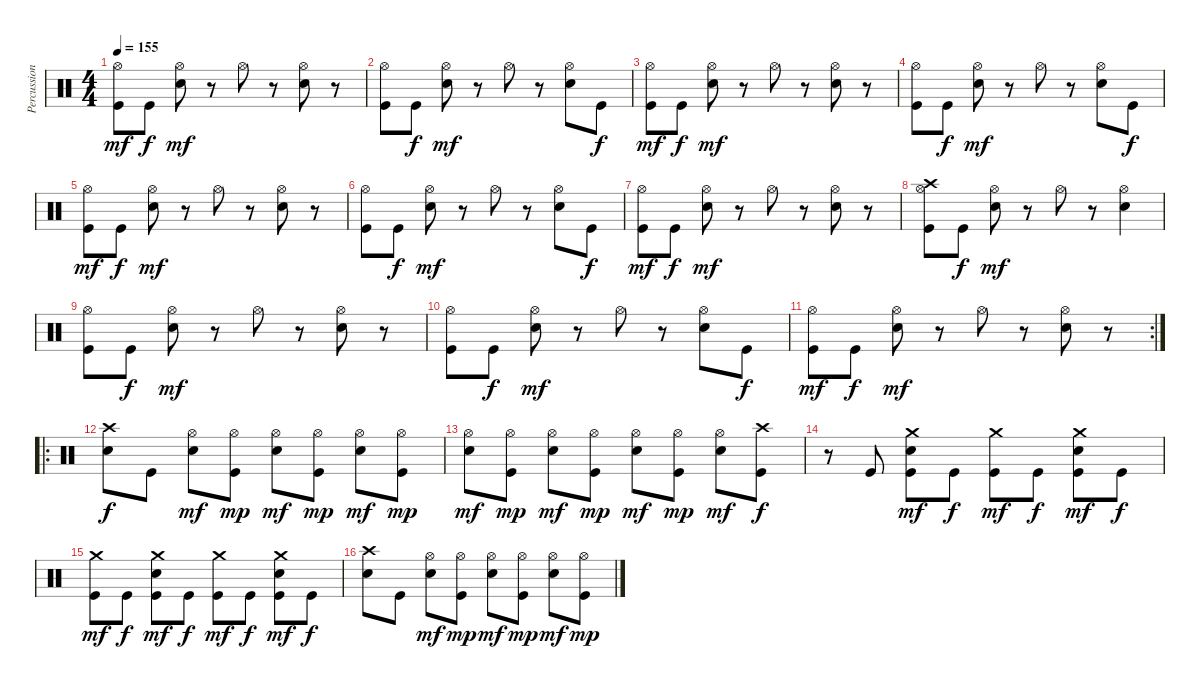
\track ("Percussions" "Percussion") {instrument percussion}
\staff {score}
\articulation defaults
\ts (4 4)
\tempo 155
\clef neutral
\ks c
("Kick (hit)" "Hi-Hat (open)").8{dy mf} "Kick (hit)".8{dy f} ("Electric Snare (hit)" "Hi-Hat (open)").8{dy mf} r.8 "Hi-Hat (open)".8 r.8 ("Electric Snare (hit)" "Hi-Hat (open)").8 r.8 |
("Kick (hit)" "Hi-Hat (open)").8 "Kick (hit)".8{dy f} ("Electric Snare (hit)" "Hi-Hat (open)").8{dy mf} r.8 "Hi-Hat (open)".8 r.8 ("Electric Snare (hit)" "Hi-Hat (open)").8 "Kick (hit)".8{dy f} |
("Kick (hit)" "Hi-Hat (open)").8{dy mf} "Kick (hit)".8{dy f} ("Electric Snare (hit)" "Hi-Hat (open)").8{dy mf} r.8 "Hi-Hat (open)".8 r.8 ("Electric Snare (hit)" "Hi-Hat (open)").8 r.8 |
("Kick (hit)" "Hi-Hat (open)").8 "Kick (hit)".8{dy f} ("Electric Snare (hit)" "Hi-Hat (open)").8{dy mf} r.8 "Hi-Hat (open)".8 r.8 ("Electric Snare (hit)" "Hi-Hat (open)").8 "Kick (hit)".8{dy f} |
("Kick (hit)" "Hi-Hat (open)").8{dy mf} "Kick (hit)".8{dy f} ("Electric Snare (hit)" "Hi-Hat (open)").8{dy mf} r.8 "Hi-Hat (open)".8 r.8 ("Electric Snare (hit)" "Hi-Hat (open)").8 r.8 |
("Kick (hit)" "Hi-Hat (open)").8 "Kick (hit)".8{dy f} ("Electric Snare (hit)" "Hi-Hat (open)").8{dy mf} r.8 "Hi-Hat (open)".8 r.8 ("Electric Snare (hit)" "Hi-Hat (open)").8 "Kick (hit)".8{dy f} |
("Kick (hit)" "Hi-Hat (open)").8{dy mf} "Kick (hit)".8{dy f} ("Electric Snare (hit)" "Hi-Hat (open)").8{dy mf} r.8 "Hi-Hat (open)".8 r.8 ("Electric Snare (hit)" "Hi-Hat (open)").8 r.8 |
("Kick (hit)" "Hi-Hat (open)" "Crash high (hit)").8 "Kick (hit)".8{dy f} ("Electric Snare (hit)" "Hi-Hat (open)").8{dy mf} r.8 "Hi-Hat (open)".8 r.8 ("Electric Snare (hit)" "Hi-Hat (open)").4 |
("Kick (hit)" "Hi-Hat (open)").8 "Kick (hit)".8{dy f} ("Electric Snare (hit)" "Hi-Hat (open)").8{dy mf} r.8 "Hi-Hat (open)".8 r.8 ("Electric Snare (hit)" "Hi-Hat (open)").8 r.8 |
("Kick (hit)" "Hi-Hat (open)").8 "Kick (hit)".8{dy f} ("Electric Snare (hit)" "Hi-Hat (open)").8{dy mf} r.8 "Hi-Hat (open)".8 r.8 ("Electric Snare (hit)" "Hi-Hat (open)").8 "Kick (hit)".8{dy f} |
\rc 2
("Kick (hit)" "Hi-Hat (open)").8{dy mf} "Kick (hit)".8{dy f} ("Electric Snare (hit)" "Hi-Hat (open)").8{dy mf} r.8 "Hi-Hat (open)".8 r.8 ("Electric Snare (hit)" "Hi-Hat (open)").8 r.8 |
\ro
("Electric Snare (hit)" "Crash high (hit)").8{dy f} "Kick (hit)".8 ("Electric Snare (hit)" "Hi-Hat (open)").8{dy mf} ("Kick (hit)" "Hi-Hat (open)").8{dy mp} ("Electric Snare (hit)" "Hi-Hat (open)").8{dy mf} ("Kick (hit)" "Hi-Hat (open)").8{dy mp} ("Electric Snare (hit)" "Hi-Hat (open)").8{dy mf} ("Kick (hit)" "Hi-Hat (open)").8{dy mp} |
("Electric Snare (hit)" "Hi-Hat (open)").8{dy mf} ("Kick (hit)" "Hi-Hat (open)").8{dy mp} ("Electric Snare (hit)" "Hi-Hat (open)").8{dy mf} ("Kick (hit)" "Hi-Hat (open)").8{dy mp} ("Electric Snare (hit)" "Hi-Hat (open)").8{dy mf} ("Kick (hit)" "Hi-Hat (open)").8{dy mp} ("Electric Snare (hit)" "Hi-Hat (open)").8{dy mf} ("Kick (hit)" "Crash high (hit)").8{dy f} |
r.8 "Kick (hit)".8 ("Kick (hit)" "Electric Snare (hit)" "Crash medium (hit)").8{dy mf} "Kick (hit)".8{dy f} ("Kick (hit)" "Crash medium (hit)").8{dy mf} "Kick (hit)".8{dy f} ("Kick (hit)" "Electric Snare (hit)" "Crash medium (hit)").8{dy mf} "Kick (hit)".8{dy f} |
("Kick (hit)" "Crash medium (hit)").8{dy mf} "Kick (hit)".8{dy f} ("Kick (hit)" "Electric Snare (hit)" "Crash medium (hit)").8{dy mf} "Kick (hit)".8{dy f} ("Kick (hit)" "Crash medium (hit)").8{dy mf} "Kick (hit)".8{dy f} ("Kick (hit)" "Electric Snare (hit)" "Crash medium (hit)").8{dy mf} "Kick (hit)".8{dy f} |
("Electric Snare (hit)" "Crash high (hit)").8 "Kick (hit)".8 ("Electric Snare (hit)" "Hi-Hat (open)").8{dy mf} ("Kick (hit)" "Hi-Hat (open)").8{dy mp} ("Electric Snare (hit)" "Hi-Hat (open)").8{dy mf} ("Kick (hit)" "Hi-Hat (open)").8{dy mp} ("Electric Snare (hit)" "Hi-Hat (open)").8{dy mf} ("Kick (hit)" "Hi-Hat (open)").8{dy mp}
